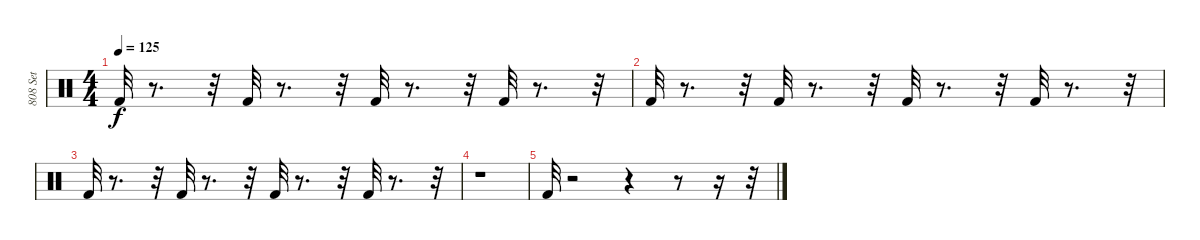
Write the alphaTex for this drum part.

\track ("808 Set" "808 Set") {instrument percussion}
\staff {score}
\articulation defaults
\ts (4 4)
\tempo 125
\clef neutral
\ks c "Kick (hit) 2".32{dy f}
r.8{d} r.32 "Kick (hit) 2".32 r.8{d} r.32 "Kick (hit) 2".32 r.8{d} r.32 "Kick (hit) 2".32 r.8{d} r.32 |
"Kick (hit) 2".32 r.8{d} r.32 "Kick (hit) 2".32 r.8{d} r.32 "Kick (hit) 2".32 r.8{d} r.32 "Kick (hit) 2".32 r.8{d} r.32 |
"Kick (hit) 2".32 r.8{d} r.32 "Kick (hit) 2".32 r.8{d} r.32 "Kick (hit) 2".32 r.8{d} r.32 "Kick (hit) 2".32 r.8{d} r.32 |
r.1 |
"Kick (hit) 2".32 r.2 r.4 r.8 r.16 r.32
